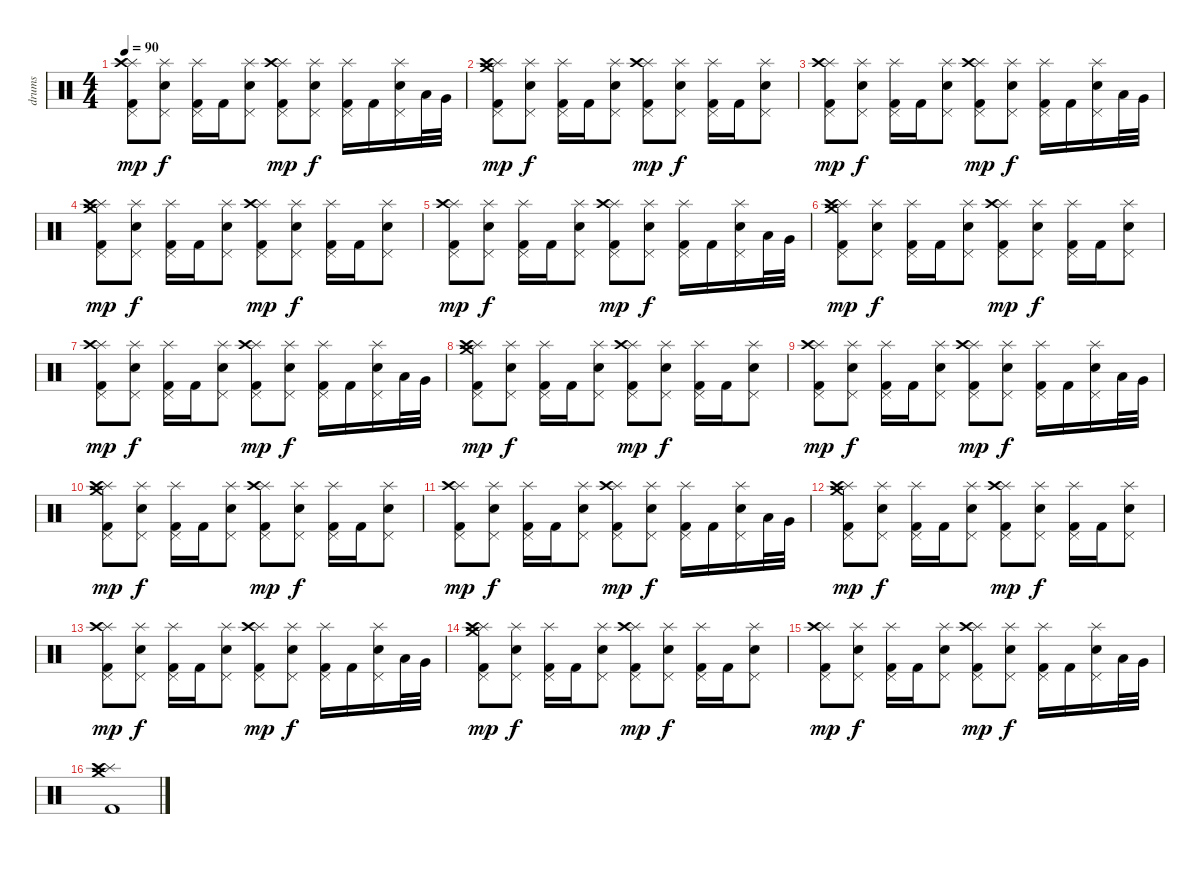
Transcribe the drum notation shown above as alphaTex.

\track ("drums" "drums") {instrument percussion}
\staff {score}
\articulation defaults
\ts (4 4)
\tempo 90
\clef neutral
\ks c
("Splash (hit)" "Pedal Hi-Hat (hit)" "Crash high (hit)" "Kick (hit) 2").8{dy mp} ("Splash (hit)" "Pedal Hi-Hat (hit)" "Electric Snare (hit)").8{dy f} ("Splash (hit)" "Pedal Hi-Hat (hit)" "Kick (hit) 2").16 "Kick (hit) 2".16 ("Splash (hit)" "Pedal Hi-Hat (hit)" "Electric Snare (hit)").8 ("Splash (hit)" "Pedal Hi-Hat (hit)" "Crash high (hit)" "Kick (hit) 2").8{dy mp} ("Splash (hit)" "Pedal Hi-Hat (hit)" "Electric Snare (hit)").8{dy f} ("Splash (hit)" "Pedal Hi-Hat (hit)" "Kick (hit) 2").16 "Kick (hit) 2".16 ("Splash (hit)" "Pedal Hi-Hat (hit)" "Electric Snare (hit)").16 "Low Tom (hit)".32 "Very Low Tom (hit)".32 |
("Splash (hit)" "Pedal Hi-Hat (hit)" "Crash high (hit)" "Crash medium (hit)" "Kick (hit) 2").8{dy mp} ("Splash (hit)" "Pedal Hi-Hat (hit)" "Electric Snare (hit)").8{dy f} ("Splash (hit)" "Pedal Hi-Hat (hit)" "Kick (hit) 2").16 "Kick (hit) 2".16 ("Splash (hit)" "Pedal Hi-Hat (hit)" "Electric Snare (hit)").8 ("Splash (hit)" "Pedal Hi-Hat (hit)" "Crash high (hit)" "Kick (hit) 2").8{dy mp} ("Splash (hit)" "Pedal Hi-Hat (hit)" "Electric Snare (hit)").8{dy f} ("Splash (hit)" "Pedal Hi-Hat (hit)" "Kick (hit) 2").16 "Kick (hit) 2".16 ("Splash (hit)" "Pedal Hi-Hat (hit)" "Electric Snare (hit)").8 |
("Splash (hit)" "Pedal Hi-Hat (hit)" "Crash high (hit)" "Kick (hit) 2").8{dy mp} ("Splash (hit)" "Pedal Hi-Hat (hit)" "Electric Snare (hit)").8{dy f} ("Splash (hit)" "Pedal Hi-Hat (hit)" "Kick (hit) 2").16 "Kick (hit) 2".16 ("Splash (hit)" "Pedal Hi-Hat (hit)" "Electric Snare (hit)").8 ("Splash (hit)" "Pedal Hi-Hat (hit)" "Crash high (hit)" "Kick (hit) 2").8{dy mp} ("Splash (hit)" "Pedal Hi-Hat (hit)" "Electric Snare (hit)").8{dy f} ("Splash (hit)" "Pedal Hi-Hat (hit)" "Kick (hit) 2").16 "Kick (hit) 2".16 ("Splash (hit)" "Pedal Hi-Hat (hit)" "Electric Snare (hit)").16 "Low Tom (hit)".32 "Very Low Tom (hit)".32 |
("Splash (hit)" "Pedal Hi-Hat (hit)" "Crash high (hit)" "Crash medium (hit)" "Kick (hit) 2").8{dy mp} ("Splash (hit)" "Pedal Hi-Hat (hit)" "Electric Snare (hit)").8{dy f} ("Splash (hit)" "Pedal Hi-Hat (hit)" "Kick (hit) 2").16 "Kick (hit) 2".16 ("Splash (hit)" "Pedal Hi-Hat (hit)" "Electric Snare (hit)").8 ("Splash (hit)" "Pedal Hi-Hat (hit)" "Crash high (hit)" "Kick (hit) 2").8{dy mp} ("Splash (hit)" "Pedal Hi-Hat (hit)" "Electric Snare (hit)").8{dy f} ("Splash (hit)" "Pedal Hi-Hat (hit)" "Kick (hit) 2").16 "Kick (hit) 2".16 ("Splash (hit)" "Pedal Hi-Hat (hit)" "Electric Snare (hit)").8 |
("Splash (hit)" "Pedal Hi-Hat (hit)" "Crash high (hit)" "Kick (hit) 2").8{dy mp} ("Splash (hit)" "Pedal Hi-Hat (hit)" "Electric Snare (hit)").8{dy f} ("Splash (hit)" "Pedal Hi-Hat (hit)" "Kick (hit) 2").16 "Kick (hit) 2".16 ("Splash (hit)" "Pedal Hi-Hat (hit)" "Electric Snare (hit)").8 ("Splash (hit)" "Pedal Hi-Hat (hit)" "Crash high (hit)" "Kick (hit) 2").8{dy mp} ("Splash (hit)" "Pedal Hi-Hat (hit)" "Electric Snare (hit)").8{dy f} ("Splash (hit)" "Pedal Hi-Hat (hit)" "Kick (hit) 2").16 "Kick (hit) 2".16 ("Splash (hit)" "Pedal Hi-Hat (hit)" "Electric Snare (hit)").16 "Low Tom (hit)".32 "Very Low Tom (hit)".32 |
("Splash (hit)" "Pedal Hi-Hat (hit)" "Crash high (hit)" "Crash medium (hit)" "Kick (hit) 2").8{dy mp} ("Splash (hit)" "Pedal Hi-Hat (hit)" "Electric Snare (hit)").8{dy f} ("Splash (hit)" "Pedal Hi-Hat (hit)" "Kick (hit) 2").16 "Kick (hit) 2".16 ("Splash (hit)" "Pedal Hi-Hat (hit)" "Electric Snare (hit)").8 ("Splash (hit)" "Pedal Hi-Hat (hit)" "Crash high (hit)" "Kick (hit) 2").8{dy mp} ("Splash (hit)" "Pedal Hi-Hat (hit)" "Electric Snare (hit)").8{dy f} ("Splash (hit)" "Pedal Hi-Hat (hit)" "Kick (hit) 2").16 "Kick (hit) 2".16 ("Splash (hit)" "Pedal Hi-Hat (hit)" "Electric Snare (hit)").8 |
("Splash (hit)" "Pedal Hi-Hat (hit)" "Crash high (hit)" "Kick (hit) 2").8{dy mp} ("Splash (hit)" "Pedal Hi-Hat (hit)" "Electric Snare (hit)").8{dy f} ("Splash (hit)" "Pedal Hi-Hat (hit)" "Kick (hit) 2").16 "Kick (hit) 2".16 ("Splash (hit)" "Pedal Hi-Hat (hit)" "Electric Snare (hit)").8 ("Splash (hit)" "Pedal Hi-Hat (hit)" "Crash high (hit)" "Kick (hit) 2").8{dy mp} ("Splash (hit)" "Pedal Hi-Hat (hit)" "Electric Snare (hit)").8{dy f} ("Splash (hit)" "Pedal Hi-Hat (hit)" "Kick (hit) 2").16 "Kick (hit) 2".16 ("Splash (hit)" "Pedal Hi-Hat (hit)" "Electric Snare (hit)").16 "Low Tom (hit)".32 "Very Low Tom (hit)".32 |
("Splash (hit)" "Pedal Hi-Hat (hit)" "Crash high (hit)" "Crash medium (hit)" "Kick (hit) 2").8{dy mp} ("Splash (hit)" "Pedal Hi-Hat (hit)" "Electric Snare (hit)").8{dy f} ("Splash (hit)" "Pedal Hi-Hat (hit)" "Kick (hit) 2").16 "Kick (hit) 2".16 ("Splash (hit)" "Pedal Hi-Hat (hit)" "Electric Snare (hit)").8 ("Splash (hit)" "Pedal Hi-Hat (hit)" "Crash high (hit)" "Kick (hit) 2").8{dy mp} ("Splash (hit)" "Pedal Hi-Hat (hit)" "Electric Snare (hit)").8{dy f} ("Splash (hit)" "Pedal Hi-Hat (hit)" "Kick (hit) 2").16 "Kick (hit) 2".16 ("Splash (hit)" "Pedal Hi-Hat (hit)" "Electric Snare (hit)").8 |
("Splash (hit)" "Pedal Hi-Hat (hit)" "Crash high (hit)" "Kick (hit) 2").8{dy mp} ("Splash (hit)" "Pedal Hi-Hat (hit)" "Electric Snare (hit)").8{dy f} ("Splash (hit)" "Pedal Hi-Hat (hit)" "Kick (hit) 2").16 "Kick (hit) 2".16 ("Splash (hit)" "Pedal Hi-Hat (hit)" "Electric Snare (hit)").8 ("Splash (hit)" "Pedal Hi-Hat (hit)" "Crash high (hit)" "Kick (hit) 2").8{dy mp} ("Splash (hit)" "Pedal Hi-Hat (hit)" "Electric Snare (hit)").8{dy f} ("Splash (hit)" "Pedal Hi-Hat (hit)" "Kick (hit) 2").16 "Kick (hit) 2".16 ("Splash (hit)" "Pedal Hi-Hat (hit)" "Electric Snare (hit)").16 "Low Tom (hit)".32 "Very Low Tom (hit)".32 |
("Splash (hit)" "Pedal Hi-Hat (hit)" "Crash high (hit)" "Crash medium (hit)" "Kick (hit) 2").8{dy mp} ("Splash (hit)" "Pedal Hi-Hat (hit)" "Electric Snare (hit)").8{dy f} ("Splash (hit)" "Pedal Hi-Hat (hit)" "Kick (hit) 2").16 "Kick (hit) 2".16 ("Splash (hit)" "Pedal Hi-Hat (hit)" "Electric Snare (hit)").8 ("Splash (hit)" "Pedal Hi-Hat (hit)" "Crash high (hit)" "Kick (hit) 2").8{dy mp} ("Splash (hit)" "Pedal Hi-Hat (hit)" "Electric Snare (hit)").8{dy f} ("Splash (hit)" "Pedal Hi-Hat (hit)" "Kick (hit) 2").16 "Kick (hit) 2".16 ("Splash (hit)" "Pedal Hi-Hat (hit)" "Electric Snare (hit)").8 |
("Splash (hit)" "Pedal Hi-Hat (hit)" "Crash high (hit)" "Kick (hit) 2").8{dy mp} ("Splash (hit)" "Pedal Hi-Hat (hit)" "Electric Snare (hit)").8{dy f} ("Splash (hit)" "Pedal Hi-Hat (hit)" "Kick (hit) 2").16 "Kick (hit) 2".16 ("Splash (hit)" "Pedal Hi-Hat (hit)" "Electric Snare (hit)").8 ("Splash (hit)" "Pedal Hi-Hat (hit)" "Crash high (hit)" "Kick (hit) 2").8{dy mp} ("Splash (hit)" "Pedal Hi-Hat (hit)" "Electric Snare (hit)").8{dy f} ("Splash (hit)" "Pedal Hi-Hat (hit)" "Kick (hit) 2").16 "Kick (hit) 2".16 ("Splash (hit)" "Pedal Hi-Hat (hit)" "Electric Snare (hit)").16 "Low Tom (hit)".32 "Very Low Tom (hit)".32 |
("Splash (hit)" "Pedal Hi-Hat (hit)" "Crash high (hit)" "Crash medium (hit)" "Kick (hit) 2").8{dy mp} ("Splash (hit)" "Pedal Hi-Hat (hit)" "Electric Snare (hit)").8{dy f} ("Splash (hit)" "Pedal Hi-Hat (hit)" "Kick (hit) 2").16 "Kick (hit) 2".16 ("Splash (hit)" "Pedal Hi-Hat (hit)" "Electric Snare (hit)").8 ("Splash (hit)" "Pedal Hi-Hat (hit)" "Crash high (hit)" "Kick (hit) 2").8{dy mp} ("Splash (hit)" "Pedal Hi-Hat (hit)" "Electric Snare (hit)").8{dy f} ("Splash (hit)" "Pedal Hi-Hat (hit)" "Kick (hit) 2").16 "Kick (hit) 2".16 ("Splash (hit)" "Pedal Hi-Hat (hit)" "Electric Snare (hit)").8 |
("Splash (hit)" "Pedal Hi-Hat (hit)" "Crash high (hit)" "Kick (hit) 2").8{dy mp} ("Splash (hit)" "Pedal Hi-Hat (hit)" "Electric Snare (hit)").8{dy f} ("Splash (hit)" "Pedal Hi-Hat (hit)" "Kick (hit) 2").16 "Kick (hit) 2".16 ("Splash (hit)" "Pedal Hi-Hat (hit)" "Electric Snare (hit)").8 ("Splash (hit)" "Pedal Hi-Hat (hit)" "Crash high (hit)" "Kick (hit) 2").8{dy mp} ("Splash (hit)" "Pedal Hi-Hat (hit)" "Electric Snare (hit)").8{dy f} ("Splash (hit)" "Pedal Hi-Hat (hit)" "Kick (hit) 2").16 "Kick (hit) 2".16 ("Splash (hit)" "Pedal Hi-Hat (hit)" "Electric Snare (hit)").16 "Low Tom (hit)".32 "Very Low Tom (hit)".32 |
("Splash (hit)" "Pedal Hi-Hat (hit)" "Crash high (hit)" "Crash medium (hit)" "Kick (hit) 2").8{dy mp} ("Splash (hit)" "Pedal Hi-Hat (hit)" "Electric Snare (hit)").8{dy f} ("Splash (hit)" "Pedal Hi-Hat (hit)" "Kick (hit) 2").16 "Kick (hit) 2".16 ("Splash (hit)" "Pedal Hi-Hat (hit)" "Electric Snare (hit)").8 ("Splash (hit)" "Pedal Hi-Hat (hit)" "Crash high (hit)" "Kick (hit) 2").8{dy mp} ("Splash (hit)" "Pedal Hi-Hat (hit)" "Electric Snare (hit)").8{dy f} ("Splash (hit)" "Pedal Hi-Hat (hit)" "Kick (hit) 2").16 "Kick (hit) 2".16 ("Splash (hit)" "Pedal Hi-Hat (hit)" "Electric Snare (hit)").8 |
("Splash (hit)" "Pedal Hi-Hat (hit)" "Crash high (hit)" "Kick (hit) 2").8{dy mp} ("Splash (hit)" "Pedal Hi-Hat (hit)" "Electric Snare (hit)").8{dy f} ("Splash (hit)" "Pedal Hi-Hat (hit)" "Kick (hit) 2").16 "Kick (hit) 2".16 ("Splash (hit)" "Pedal Hi-Hat (hit)" "Electric Snare (hit)").8 ("Splash (hit)" "Pedal Hi-Hat (hit)" "Crash high (hit)" "Kick (hit) 2").8{dy mp} ("Splash (hit)" "Pedal Hi-Hat (hit)" "Electric Snare (hit)").8{dy f} ("Splash (hit)" "Pedal Hi-Hat (hit)" "Kick (hit) 2").16 "Kick (hit) 2".16 ("Splash (hit)" "Pedal Hi-Hat (hit)" "Electric Snare (hit)").16 "Low Tom (hit)".32 "Very Low Tom (hit)".32 |
("Splash (hit)" "Crash high (hit)" "Crash medium (hit)" "Kick (hit) 2").1
